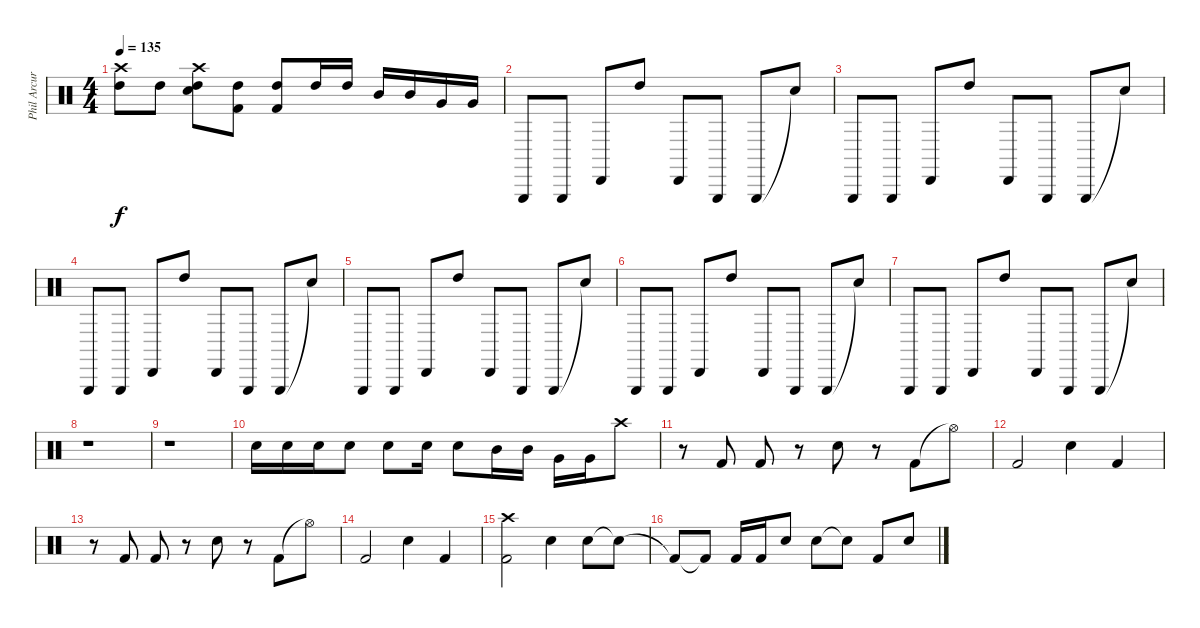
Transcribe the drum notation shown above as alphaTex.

\track ("Phil Arcuri drums" "Phil Arcur") {instrument percussion}
\staff {score}
\articulation defaults
\ts (4 4)
\tempo 135
\clef neutral
\ks c
("Crash high (hit)" "High Tom (hit)").8{dy f} "High Tom (hit)".8 ("Crash high (hit)" "Snare (hit) 2" "High Tom (hit)").8 ("Kick (hit) 2" "High Tom (hit)").8 ("Kick (hit) 2" "High Tom (hit)").8 "High Tom (hit)".16 "High Tom (hit)".16 "Mid Tom (hit)".16 "Mid Tom (hit)".16 "Very Low Tom (hit)".16 "Very Low Tom (hit)".16 |
"Triangle (hit)".8 "Triangle (hit)".8 "Cabasa (hit)".8 "High Tom (hit)".8 "Cabasa (hit)".8 "Triangle (hit)".8 "Triangle (hit)".8 "Snare (hit)"{t}.8 |
"Triangle (hit)".8 "Triangle (hit)".8 "Cabasa (hit)".8 "High Tom (hit)".8 "Cabasa (hit)".8 "Triangle (hit)".8 "Triangle (hit)".8 "Snare (hit)"{t}.8 |
"Triangle (hit)".8 "Triangle (hit)".8 "Cabasa (hit)".8 "High Tom (hit)".8 "Cabasa (hit)".8 "Triangle (hit)".8 "Triangle (hit)".8 "Snare (hit)"{t}.8 |
"Triangle (hit)".8 "Triangle (hit)".8 "Cabasa (hit)".8 "High Tom (hit)".8 "Cabasa (hit)".8 "Triangle (hit)".8 "Triangle (hit)".8 "Snare (hit)"{t}.8 |
"Triangle (hit)".8 "Triangle (hit)".8 "Cabasa (hit)".8 "High Tom (hit)".8 "Cabasa (hit)".8 "Triangle (hit)".8 "Triangle (hit)".8 "Snare (hit)"{t}.8 |
"Triangle (hit)".8 "Triangle (hit)".8 "Cabasa (hit)".8 "High Tom (hit)".8 "Cabasa (hit)".8 "Triangle (hit)".8 "Triangle (hit)".8 "Snare (hit)"{t}.8 |
r.1 |
r.1 |
"Electric Snare (hit)".16 "Electric Snare (hit)".16 "Electric Snare (hit)".16 "Electric Snare (hit)".8 "Snare (hit) 2".8 "Snare (hit) 2".16 "Snare (hit) 2".8 "Mid Tom (hit)".16 "Mid Tom (hit)".16 "Very Low Tom (hit)".16 "Very Low Tom (hit)".16 "Crash high (hit)".8 |
r.8 "Kick (hit) 2".8 "Kick (hit) 2".8 r.8 "Snare (hit) 2".8 r.8 "Kick (hit) 2".8 "Hi-Hat (open)"{t}.8 |
"Kick (hit) 2".2 "Electric Snare (hit)".4 "Kick (hit) 2".4 |
r.8 "Kick (hit) 2".8 "Kick (hit) 2".8 r.8 "Snare (hit) 2".8 r.8 "Kick (hit) 2".8 "Hi-Hat (open)"{t}.8 |
"Kick (hit) 2".2 "Electric Snare (hit)".4 "Kick (hit) 2".4 |
("Kick (hit) 2" "Crash high (hit)").2 "Electric Snare (hit)".4 "Snare (hit) 2".8 "Snare (hit)"{t}.8 |
"Kick (hit) 2"{t}.8 "Kick (hit) 2"{t}.8 "Kick (hit) 2".16 "Kick (hit) 2".16 "Snare (hit) 2".8 "Electric Snare (hit)".8 "Snare (hit)"{t}.8 "Kick (hit) 2".8 "Electric Snare (hit)".8
